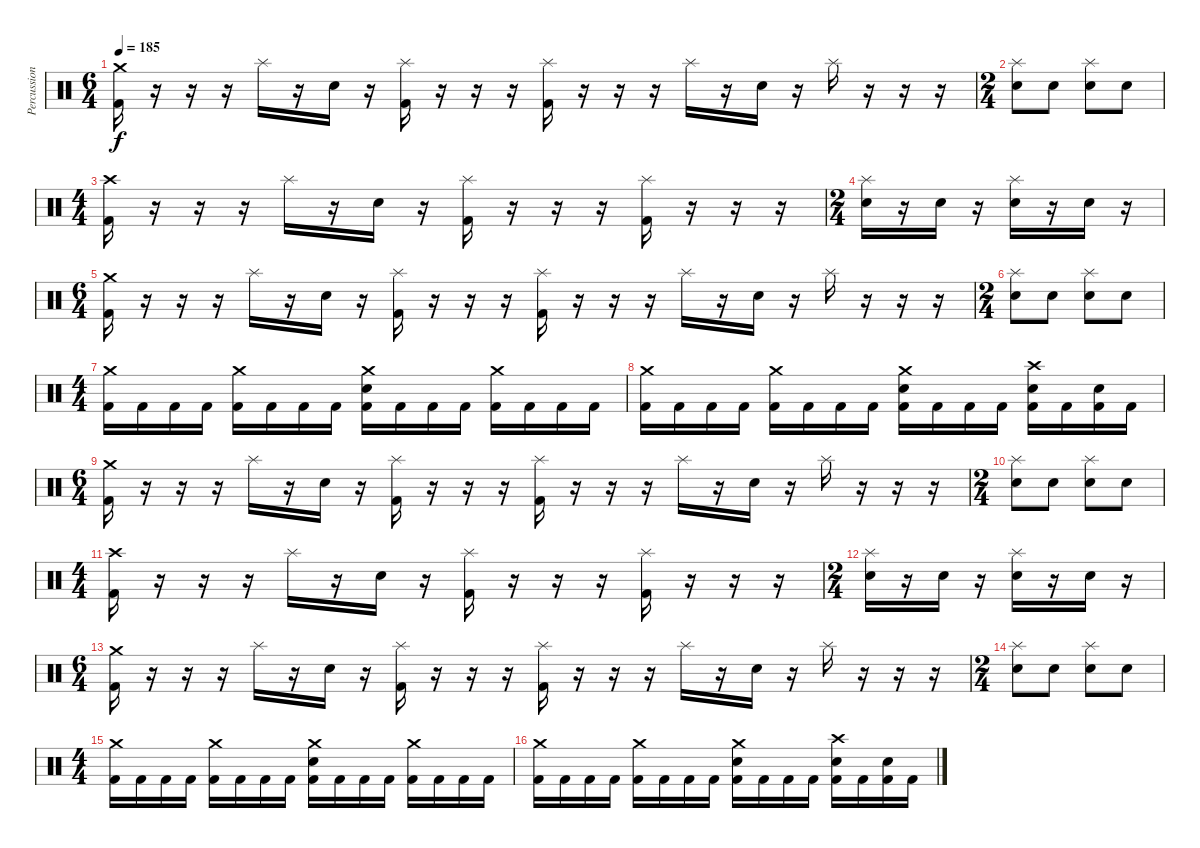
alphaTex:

\track ("Percussion" "Percussion") {instrument percussion}
\staff {score}
\articulation defaults
\ts (6 4)
\tempo 185
\clef neutral
\ks c
("Crash medium (hit)" "Kick (hit) 2").16{dy f} r.16 r.16 r.16 "Splash (hit)".16 r.16 "Electric Snare (hit)".16 r.16 ("Splash (hit)" "Kick (hit) 2").16 r.16 r.16 r.16 ("Splash (hit)" "Kick (hit) 2").16 r.16 r.16 r.16 "Splash (hit)".16 r.16 "Electric Snare (hit)".16 r.16 "Splash (hit)".16 r.16 r.16 r.16 |
\ts (2 4)
("Splash (hit)" "Electric Snare (hit)").8 "Electric Snare (hit)".8 ("Splash (hit)" "Electric Snare (hit)").8 "Electric Snare (hit)".8 |
\ts (4 4)
("Crash high (hit)" "Kick (hit) 2").16 r.16 r.16 r.16 "Splash (hit)".16 r.16 "Electric Snare (hit)".16 r.16 ("Splash (hit)" "Kick (hit) 2").16 r.16 r.16 r.16 ("Splash (hit)" "Kick (hit) 2").16 r.16 r.16 r.16 |
\ts (2 4)
("Splash (hit)" "Electric Snare (hit)").16 r.16 "Electric Snare (hit)".16 r.16 ("Splash (hit)" "Electric Snare (hit)").16 r.16 "Electric Snare (hit)".16 r.16 |
\ts (6 4)
("Crash medium (hit)" "Kick (hit) 2").16 r.16 r.16 r.16 "Splash (hit)".16 r.16 "Electric Snare (hit)".16 r.16 ("Splash (hit)" "Kick (hit) 2").16 r.16 r.16 r.16 ("Splash (hit)" "Kick (hit) 2").16 r.16 r.16 r.16 "Splash (hit)".16 r.16 "Electric Snare (hit)".16 r.16 "Splash (hit)".16 r.16 r.16 r.16 |
\ts (2 4)
("Splash (hit)" "Electric Snare (hit)").8 "Electric Snare (hit)".8 ("Splash (hit)" "Electric Snare (hit)").8 "Electric Snare (hit)".8 |
\ts (4 4)
("Crash medium (hit)" "Kick (hit) 2").16 "Kick (hit) 2".16 "Kick (hit) 2".16 "Kick (hit) 2".16 ("Crash medium (hit)" "Kick (hit) 2").16 "Kick (hit) 2".16 "Kick (hit) 2".16 "Kick (hit) 2".16 ("Crash medium (hit)" "Electric Snare (hit)" "Kick (hit) 2").16 "Kick (hit) 2".16 "Kick (hit) 2".16 "Kick (hit) 2".16 ("Crash medium (hit)" "Kick (hit) 2").16 "Kick (hit) 2".16 "Kick (hit) 2".16 "Kick (hit) 2".16 |
("Crash medium (hit)" "Kick (hit) 2").16 "Kick (hit) 2".16 "Kick (hit) 2".16 "Kick (hit) 2".16 ("Crash medium (hit)" "Kick (hit) 2").16 "Kick (hit) 2".16 "Kick (hit) 2".16 "Kick (hit) 2".16 ("Crash medium (hit)" "Electric Snare (hit)" "Kick (hit) 2").16 "Kick (hit) 2".16 "Kick (hit) 2".16 "Kick (hit) 2".16 ("Crash high (hit)" "Electric Snare (hit)" "Kick (hit) 2").16 "Kick (hit) 2".16 ("Electric Snare (hit)" "Kick (hit) 2").16 "Kick (hit) 2".16 |
\ts (6 4)
("Crash medium (hit)" "Kick (hit) 2").16 r.16 r.16 r.16 "Splash (hit)".16 r.16 "Electric Snare (hit)".16 r.16 ("Splash (hit)" "Kick (hit) 2").16 r.16 r.16 r.16 ("Splash (hit)" "Kick (hit) 2").16 r.16 r.16 r.16 "Splash (hit)".16 r.16 "Electric Snare (hit)".16 r.16 "Splash (hit)".16 r.16 r.16 r.16 |
\ts (2 4)
("Splash (hit)" "Electric Snare (hit)").8 "Electric Snare (hit)".8 ("Splash (hit)" "Electric Snare (hit)").8 "Electric Snare (hit)".8 |
\ts (4 4)
("Crash high (hit)" "Kick (hit) 2").16 r.16 r.16 r.16 "Splash (hit)".16 r.16 "Electric Snare (hit)".16 r.16 ("Splash (hit)" "Kick (hit) 2").16 r.16 r.16 r.16 ("Splash (hit)" "Kick (hit) 2").16 r.16 r.16 r.16 |
\ts (2 4)
("Splash (hit)" "Electric Snare (hit)").16 r.16 "Electric Snare (hit)".16 r.16 ("Splash (hit)" "Electric Snare (hit)").16 r.16 "Electric Snare (hit)".16 r.16 |
\ts (6 4)
("Crash medium (hit)" "Kick (hit) 2").16 r.16 r.16 r.16 "Splash (hit)".16 r.16 "Electric Snare (hit)".16 r.16 ("Splash (hit)" "Kick (hit) 2").16 r.16 r.16 r.16 ("Splash (hit)" "Kick (hit) 2").16 r.16 r.16 r.16 "Splash (hit)".16 r.16 "Electric Snare (hit)".16 r.16 "Splash (hit)".16 r.16 r.16 r.16 |
\ts (2 4)
("Splash (hit)" "Electric Snare (hit)").8 "Electric Snare (hit)".8 ("Splash (hit)" "Electric Snare (hit)").8 "Electric Snare (hit)".8 |
\ts (4 4)
("Crash medium (hit)" "Kick (hit) 2").16 "Kick (hit) 2".16 "Kick (hit) 2".16 "Kick (hit) 2".16 ("Crash medium (hit)" "Kick (hit) 2").16 "Kick (hit) 2".16 "Kick (hit) 2".16 "Kick (hit) 2".16 ("Crash medium (hit)" "Electric Snare (hit)" "Kick (hit) 2").16 "Kick (hit) 2".16 "Kick (hit) 2".16 "Kick (hit) 2".16 ("Crash medium (hit)" "Kick (hit) 2").16 "Kick (hit) 2".16 "Kick (hit) 2".16 "Kick (hit) 2".16 |
("Crash medium (hit)" "Kick (hit) 2").16 "Kick (hit) 2".16 "Kick (hit) 2".16 "Kick (hit) 2".16 ("Crash medium (hit)" "Kick (hit) 2").16 "Kick (hit) 2".16 "Kick (hit) 2".16 "Kick (hit) 2".16 ("Crash medium (hit)" "Electric Snare (hit)" "Kick (hit) 2").16 "Kick (hit) 2".16 "Kick (hit) 2".16 "Kick (hit) 2".16 ("Crash high (hit)" "Electric Snare (hit)" "Kick (hit) 2").16 "Kick (hit) 2".16 ("Electric Snare (hit)" "Kick (hit) 2").16 "Kick (hit) 2".16
